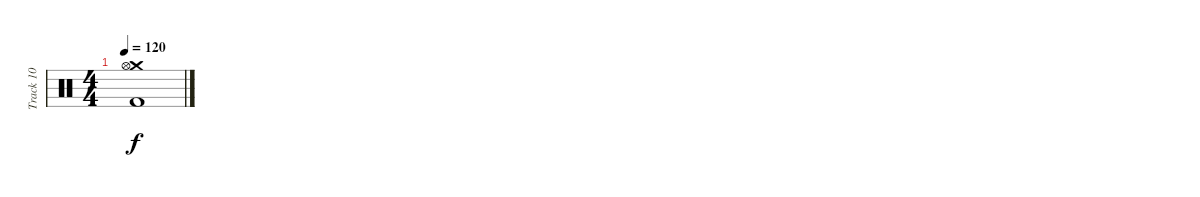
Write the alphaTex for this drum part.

\track ("Track 10" "Track 10") {instrument percussion}
\staff {score}
\articulation defaults
\ts (4 4)
\tempo 120
\clef neutral
\ks c
("Crash medium (hit)" "Hi-Hat (open)" "Kick (hit) 2").1{dy f}
